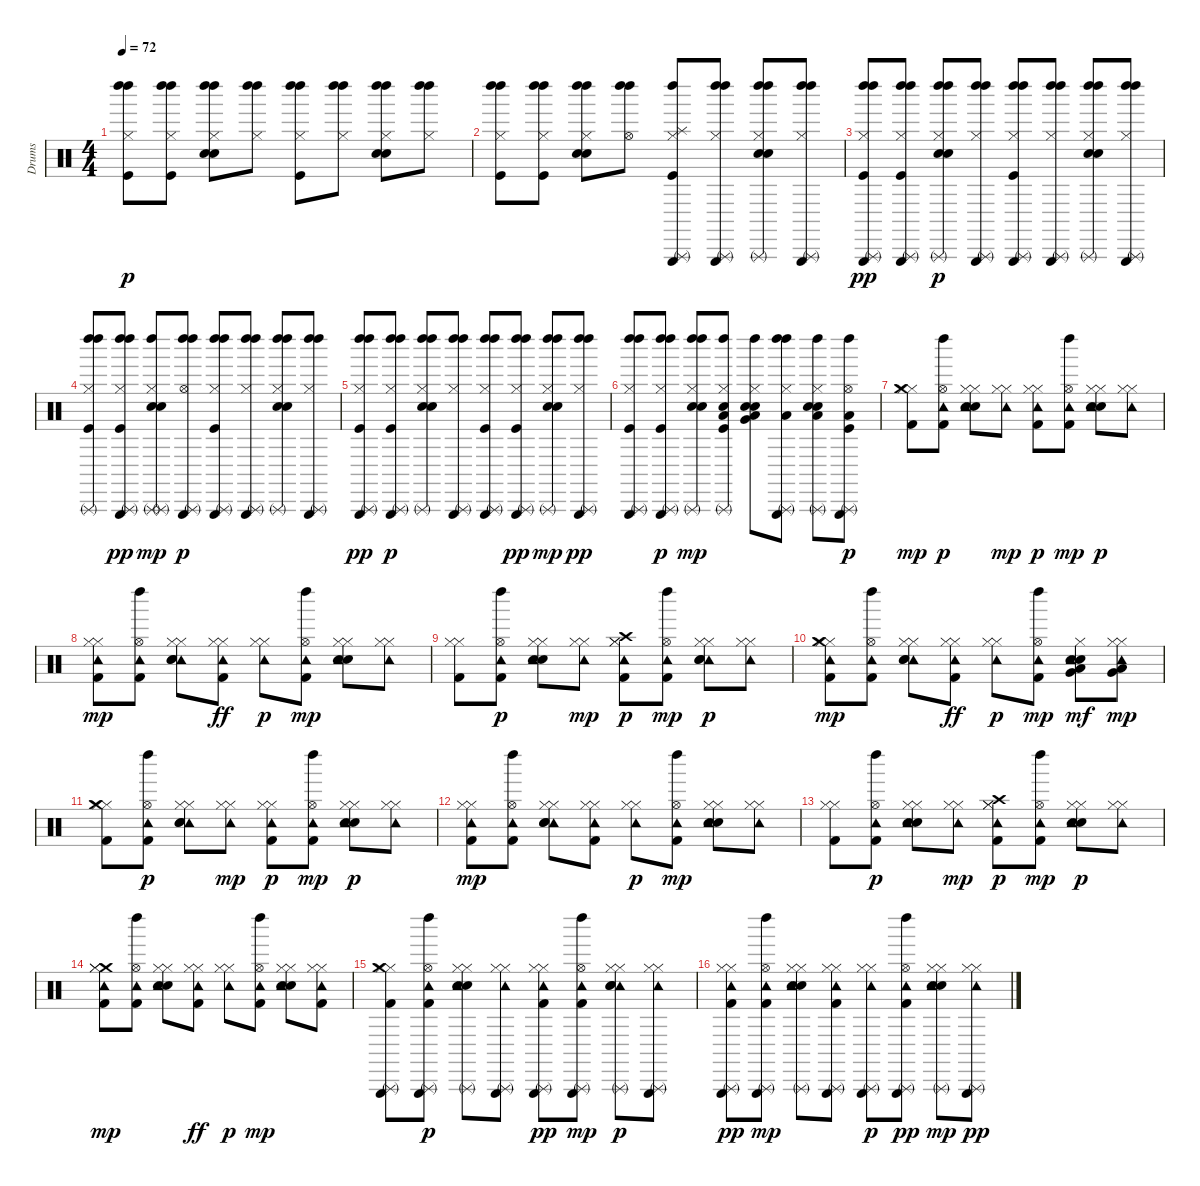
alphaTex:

\track ("Drums" "Drums") {instrument percussion}
\staff {score}
\articulation defaults
\ts (4 4)
\tempo 72
\clef neutral
\ks c
("Kick (hit)" "Hi-Hat (closed)" "Left Maraca (hit)" "Left Maraca (hit)").8{dy p} ("Hi-Hat (closed)" "Left Maraca (hit)" "Kick (hit)" "Left Maraca (hit)").8 ("Electric Snare (hit)" "Left Maraca (hit)" "Hand Clap (hit)" "Hi-Hat (closed)" "Left Maraca (hit)").8 ("Hi-Hat (closed)" "Left Maraca (hit)" "Left Maraca (hit)").8 ("Hi-Hat (closed)" "Kick (hit)" "Left Maraca (hit)" "Left Maraca (hit)").8 ("Hi-Hat (closed)" "Left Maraca (hit)" "Left Maraca (hit)").8 ("Left Maraca (hit)" "Hand Clap (hit)" "Electric Snare (hit)" "Hi-Hat (closed)" "Left Maraca (hit)").8 ("Left Maraca (hit)" "Hi-Hat (closed)" "Left Maraca (hit)").8 |
("Left Maraca (hit)" "Hi-Hat (closed)" "Kick (hit)" "Left Maraca (hit)").8 ("Left Maraca (hit)" "Hi-Hat (closed)" "Kick (hit)" "Left Maraca (hit)").8 ("Left Maraca (hit)" "Electric Snare (hit)" "Hand Clap (hit)" "Hi-Hat (closed)" "Left Maraca (hit)").8 ("Left Maraca (hit)" "Hi-Hat (open)" "Left Maraca (hit)").8 ("Splash (hit)" "Triangle (rnute)" "Hi-Hat (closed)" "Left Maraca (hit)" "Kick (hit)" "Triangle (hit)").8 ("Hi-Hat (closed)" "Triangle (rnute)" "Left Maraca (hit)" "Left Maraca (hit)" "Triangle (hit)").8 ("Hand Clap (hit)" "Hi-Hat (closed)" "Left Maraca (hit)" "Electric Snare (hit)" "Left Maraca (hit)" "Triangle (rnute)").8 ("Hi-Hat (closed)" "Triangle (rnute)" "Left Maraca (hit)" "Left Maraca (hit)" "Triangle (hit)").8 |
("Hi-Hat (closed)" "Kick (hit)" "Left Maraca (hit)" "Triangle (rnute)" "Left Maraca (hit)" "Triangle (hit)").8{dy pp} ("Kick (hit)" "Hi-Hat (closed)" "Left Maraca (hit)" "Triangle (rnute)" "Left Maraca (hit)" "Triangle (hit)").8 ("Hi-Hat (closed)" "Left Maraca (hit)" "Hand Clap (hit)" "Electric Snare (hit)" "Triangle (rnute)" "Left Maraca (hit)").8{dy p} ("Triangle (rnute)" "Hi-Hat (closed)" "Left Maraca (hit)" "Triangle (hit)" "Left Maraca (hit)").8 ("Kick (hit)" "Left Maraca (hit)" "Hi-Hat (closed)" "Triangle (rnute)" "Triangle (hit)" "Left Maraca (hit)").8 ("Left Maraca (hit)" "Hi-Hat (closed)" "Triangle (rnute)" "Triangle (hit)" "Left Maraca (hit)").8 ("Left Maraca (hit)" "Electric Snare (hit)" "Hi-Hat (closed)" "Hand Clap (hit)" "Triangle (rnute)" "Left Maraca (hit)").8 ("Hi-Hat (closed)" "Triangle (rnute)" "Left Maraca (hit)" "Triangle (hit)" "Left Maraca (hit)").8 |
("Left Maraca (hit)" "Kick (hit)" "Hi-Hat (closed)" "Left Maraca (hit)" "Triangle (rnute)").8 ("Hi-Hat (closed)" "Triangle (rnute)" "Left Maraca (hit)" "Kick (hit)" "Left Maraca (hit)" "Triangle (hit)").8{dy pp} ("Triangle (rnute)" "Hand Clap (hit)" "Electric Snare (hit)" "Left Maraca (hit)" "Hi-Hat (closed)" "Triangle (rnute)").8{dy mp} ("Left Maraca (hit)" "Hi-Hat (open)" "Triangle (hit)" "Triangle (rnute)" "Left Maraca (hit)").8{dy p} ("Triangle (rnute)" "Left Maraca (hit)" "Kick (hit)" "Hi-Hat (closed)" "Left Maraca (hit)" "Triangle (hit)").8 ("Triangle (rnute)" "Left Maraca (hit)" "Hi-Hat (closed)" "Triangle (hit)" "Left Maraca (hit)").8 ("Electric Snare (hit)" "Left Maraca (hit)" "Hi-Hat (closed)" "Hand Clap (hit)" "Triangle (rnute)" "Left Maraca (hit)").8 ("Hi-Hat (closed)" "Left Maraca (hit)" "Triangle (rnute)" "Left Maraca (hit)" "Triangle (hit)").8 |
("Kick (hit)" "Hi-Hat (closed)" "Left Maraca (hit)" "Triangle (rnute)" "Left Maraca (hit)" "Triangle (hit)").8{dy pp} ("Triangle (rnute)" "Kick (hit)" "Left Maraca (hit)" "Hi-Hat (closed)" "Triangle (hit)" "Left Maraca (hit)").8{dy p} ("Left Maraca (hit)" "Hand Clap (hit)" "Electric Snare (hit)" "Hi-Hat (closed)" "Left Maraca (hit)" "Triangle (rnute)").8 ("Left Maraca (hit)" "Hi-Hat (closed)" "Triangle (rnute)" "Triangle (hit)" "Left Maraca (hit)").8 ("Triangle (rnute)" "Kick (hit)" "Hi-Hat (closed)" "Left Maraca (hit)" "Triangle (hit)" "Left Maraca (hit)").8 ("Kick (hit)" "Hi-Hat (closed)" "Left Maraca (hit)" "Triangle (rnute)" "Left Maraca (hit)" "Triangle (hit)").8{dy pp} ("Electric Snare (hit)" "Hi-Hat (closed)" "Hand Clap (hit)" "Left Maraca (hit)" "Left Maraca (hit)" "Triangle (rnute)").8{dy mp} ("Hi-Hat (closed)" "Triangle (rnute)" "Left Maraca (hit)" "Left Maraca (hit)" "Triangle (hit)").8{dy pp} |
("Hi-Hat (closed)" "Kick (hit)" "Left Maraca (hit)" "Triangle (rnute)" "Left Maraca (hit)" "Triangle (hit)").8 ("Kick (hit)" "Hi-Hat (closed)" "Triangle (rnute)" "Left Maraca (hit)" "Triangle (hit)" "Left Maraca (hit)").8{dy p} ("Hi-Hat (closed)" "Electric Snare (hit)" "Hand Clap (hit)" "Left Maraca (hit)" "Left Maraca (hit)" "Triangle (rnute)").8{dy mp} ("Left Maraca (hit)" "Triangle (rnute)" "Hi-Hat (closed)" "Kick (hit)" "Low Tom (hit)" "Electric Snare (hit)").8 ("Hand Clap (hit)" "Low Tom (hit)" "Hi-Hat (closed)" "Left Maraca (hit)" "Electric Snare (hit)" "Very Low Tom (hit)").8 ("Left Maraca (hit)" "Hi-Hat (closed)" "Triangle (rnute)" "Left Maraca (hit)" "Triangle (hit)" "Low Tom (hit)").8 ("Triangle (rnute)" "Low Tom (hit)" "Electric Snare (hit)" "Hi-Hat (closed)" "Hand Clap (hit)" "Left Maraca (hit)").8 ("Hi-Hat (open)" "Left Maraca (hit)" "Low Floor Tom (hit)" "Kick (hit)" "Triangle (hit)" "Triangle (rnute)").8{dy p} |
("Kick (hit) 2" "Hi-Hat (closed)" "Crash medium (hit)" "Hi-Hat (closed)").8{dy mp} ("Kick (hit) 2" "Tambourine (hit)" "Hi-Hat (open)" "Left Maraca (hit)").8{dy p} ("Electric Snare (hit)" "Hi-Hat (closed)" "Tambourine (hit)" "Hand Clap (hit)" "Hi-Hat (closed)").8 ("Tambourine (hit)" "Hi-Hat (closed)" "Hi-Hat (closed)").8{dy mp} ("Hi-Hat (closed)" "Tambourine (hit)" "Kick (hit) 2" "Hi-Hat (closed)").8{dy p} ("Kick (hit) 2" "Tambourine (hit)" "Hi-Hat (open)" "Left Maraca (hit)").8{dy mp} ("Hand Clap (hit)" "Electric Snare (hit)" "Hi-Hat (closed)" "Tambourine (hit)" "Hi-Hat (closed)").8{dy p} ("Hi-Hat (closed)" "Tambourine (hit)" "Hi-Hat (closed)").8 |
("Tambourine (hit)" "Hi-Hat (closed)" "Kick (hit) 2" "Hi-Hat (closed)").8{dy mp} ("Hi-Hat (open)" "Tambourine (hit)" "Kick (hit) 2" "Left Maraca (hit)").8 ("Tambourine (hit)" "Electric Snare (hit)" "Hi-Hat (closed)" "Hand Clap (hit)" "Hi-Hat (closed)").8 ("Hi-Hat (closed)" "Tambourine (hit)" "Hi-Hat (closed)" "Kick (hit) 2").8{dy ff} ("Hi-Hat (closed)" "Tambourine (hit)" "Hi-Hat (closed)").8{dy p} ("Hi-Hat (open)" "Kick (hit) 2" "Tambourine (hit)" "Left Maraca (hit)").8{dy mp} ("Hi-Hat (closed)" "Hand Clap (hit)" "Electric Snare (hit)" "Tambourine (hit)" "Hi-Hat (closed)").8 ("Tambourine (hit)" "Hi-Hat (closed)" "Hi-Hat (closed)").8 |
("Hi-Hat (closed)" "Kick (hit) 2" "Hi-Hat (closed)").8 ("Hi-Hat (open)" "Kick (hit) 2" "Tambourine (hit)" "Left Maraca (hit)").8{dy p} ("Hand Clap (hit)" "Electric Snare (hit)" "Tambourine (hit)" "Hi-Hat (closed)" "Hi-Hat (closed)").8 ("Tambourine (hit)" "Hi-Hat (closed)" "Hi-Hat (closed)").8{dy mp} ("Kick (hit) 2" "Crash high (hit)" "Hi-Hat (closed)" "Tambourine (hit)" "Hi-Hat (closed)").8{dy p} ("Hi-Hat (open)" "Tambourine (hit)" "Kick (hit) 2" "Left Maraca (hit)").8{dy mp} ("Tambourine (hit)" "Hand Clap (hit)" "Hi-Hat (closed)" "Electric Snare (hit)" "Hi-Hat (closed)").8{dy p} ("Tambourine (hit)" "Hi-Hat (closed)" "Hi-Hat (closed)").8 |
("Kick (hit) 2" "Hi-Hat (closed)" "Crash medium (hit)" "Tambourine (hit)" "Hi-Hat (closed)").8{dy mp} ("Tambourine (hit)" "Hi-Hat (open)" "Kick (hit) 2" "Left Maraca (hit)").8 ("Tambourine (hit)" "Hand Clap (hit)" "Hi-Hat (closed)" "Electric Snare (hit)" "Hi-Hat (closed)").8 ("Tambourine (hit)" "Hi-Hat (closed)" "Hi-Hat (closed)" "Kick (hit) 2").8{dy ff} ("Tambourine (hit)" "Hi-Hat (closed)" "Hi-Hat (closed)").8{dy p} ("Tambourine (hit)" "Hi-Hat (open)" "Kick (hit) 2" "Left Maraca (hit)").8{dy mp} ("Hi-Hat (closed)" "Electric Snare (hit)" "Hand Clap (hit)" "Low Tom (hit)" "Tambourine (hit)" "Very Low Tom (hit)").8{dy mf} ("Low Floor Tom (hit)" "Hi-Hat (closed)" "Tambourine (hit)" "Very Low Tom (hit)" "Hi-Hat (closed)").8{dy mp} |
("Hi-Hat (closed)" "Crash medium (hit)" "Kick (hit) 2" "Hi-Hat (closed)").8 ("Hi-Hat (open)" "Tambourine (hit)" "Kick (hit) 2" "Left Maraca (hit)").8{dy p} ("Tambourine (hit)" "Hand Clap (hit)" "Hi-Hat (closed)" "Electric Snare (hit)" "Hi-Hat (closed)").8 ("Hi-Hat (closed)" "Tambourine (hit)" "Hi-Hat (closed)").8{dy mp} ("Kick (hit) 2" "Hi-Hat (closed)" "Tambourine (hit)" "Hi-Hat (closed)").8{dy p} ("Hi-Hat (open)" "Tambourine (hit)" "Kick (hit) 2" "Left Maraca (hit)").8{dy mp} ("Hi-Hat (closed)" "Hand Clap (hit)" "Electric Snare (hit)" "Tambourine (hit)" "Hi-Hat (closed)").8{dy p} ("Tambourine (hit)" "Hi-Hat (closed)" "Hi-Hat (closed)").8 |
("Tambourine (hit)" "Hi-Hat (closed)" "Kick (hit) 2" "Hi-Hat (closed)").8{dy mp} ("Hi-Hat (open)" "Kick (hit) 2" "Tambourine (hit)" "Left Maraca (hit)").8 ("Tambourine (hit)" "Hand Clap (hit)" "Electric Snare (hit)" "Hi-Hat (closed)" "Hi-Hat (closed)").8 ("Tambourine (hit)" "Hi-Hat (closed)" "Kick (hit) 2" "Hi-Hat (closed)").8 ("Tambourine (hit)" "Hi-Hat (closed)" "Hi-Hat (closed)").8{dy p} ("Kick (hit) 2" "Tambourine (hit)" "Hi-Hat (open)" "Left Maraca (hit)").8{dy mp} ("Hi-Hat (closed)" "Electric Snare (hit)" "Tambourine (hit)" "Hand Clap (hit)" "Hi-Hat (closed)").8 ("Hi-Hat (closed)" "Tambourine (hit)" "Hi-Hat (closed)").8 |
("Kick (hit) 2" "Hi-Hat (closed)" "Hi-Hat (closed)").8 ("Tambourine (hit)" "Hi-Hat (open)" "Kick (hit) 2" "Left Maraca (hit)").8{dy p} ("Hand Clap (hit)" "Electric Snare (hit)" "Hi-Hat (closed)" "Tambourine (hit)" "Hi-Hat (closed)").8 ("Hi-Hat (closed)" "Tambourine (hit)" "Hi-Hat (closed)").8{dy mp} ("Hi-Hat (closed)" "Kick (hit) 2" "Tambourine (hit)" "Crash high (hit)" "Hi-Hat (closed)").8{dy p} ("Hi-Hat (open)" "Kick (hit) 2" "Tambourine (hit)" "Left Maraca (hit)").8{dy mp} ("Hand Clap (hit)" "Tambourine (hit)" "Electric Snare (hit)" "Hi-Hat (closed)" "Hi-Hat (closed)").8{dy p} ("Hi-Hat (closed)" "Tambourine (hit)" "Hi-Hat (closed)").8 |
("Crash medium (hit)" "Tambourine (hit)" "Hi-Hat (closed)" "Kick (hit) 2" "Hi-Hat (closed)").8{dy mp} ("Tambourine (hit)" "Kick (hit) 2" "Hi-Hat (open)" "Left Maraca (hit)").8 ("Hand Clap (hit)" "Electric Snare (hit)" "Hi-Hat (closed)" "Tambourine (hit)" "Hi-Hat (closed)").8 ("Tambourine (hit)" "Hi-Hat (closed)" "Hi-Hat (closed)" "Kick (hit) 2").8{dy ff} ("Tambourine (hit)" "Hi-Hat (closed)" "Hi-Hat (closed)").8{dy p} ("Kick (hit) 2" "Tambourine (hit)" "Hi-Hat (open)" "Left Maraca (hit)").8{dy mp} ("Electric Snare (hit)" "Hand Clap (hit)" "Hi-Hat (closed)" "Tambourine (hit)" "Hi-Hat (closed)").8 ("Tambourine (hit)" "Hi-Hat (closed)" "Kick (hit) 2" "Hi-Hat (closed)").8 |
("Kick (hit) 2" "Hi-Hat (closed)" "Crash medium (hit)" "Triangle (rnute)" "Triangle (hit)" "Hi-Hat (closed)").8 ("Hi-Hat (open)" "Tambourine (hit)" "Kick (hit) 2" "Triangle (rnute)" "Left Maraca (hit)" "Triangle (hit)").8{dy p} ("Hand Clap (hit)" "Hi-Hat (closed)" "Tambourine (hit)" "Electric Snare (hit)" "Triangle (rnute)" "Hi-Hat (closed)").8 ("Triangle (rnute)" "Hi-Hat (closed)" "Tambourine (hit)" "Hi-Hat (closed)" "Triangle (hit)").8 ("Hi-Hat (closed)" "Triangle (rnute)" "Tambourine (hit)" "Kick (hit) 2" "Hi-Hat (closed)" "Triangle (hit)").8{dy pp} ("Tambourine (hit)" "Triangle (rnute)" "Hi-Hat (open)" "Kick (hit) 2" "Triangle (hit)" "Left Maraca (hit)").8{dy mp} ("Tambourine (hit)" "Hi-Hat (closed)" "Hand Clap (hit)" "Electric Snare (hit)" "Triangle (rnute)" "Hi-Hat (closed)").8{dy p} ("Tambourine (hit)" "Hi-Hat (closed)" "Triangle (rnute)" "Triangle (hit)" "Hi-Hat (closed)").8 |
("Triangle (rnute)" "Hi-Hat (closed)" "Kick (hit) 2" "Tambourine (hit)" "Hi-Hat (closed)" "Triangle (hit)").8{dy pp} ("Tambourine (hit)" "Hi-Hat (open)" "Triangle (rnute)" "Kick (hit) 2" "Triangle (hit)" "Left Maraca (hit)").8{dy mp} ("Hand Clap (hit)" "Tambourine (hit)" "Hi-Hat (closed)" "Electric Snare (hit)" "Hi-Hat (closed)" "Triangle (rnute)").8 ("Hi-Hat (closed)" "Triangle (rnute)" "Tambourine (hit)" "Kick (hit) 2" "Triangle (hit)" "Hi-Hat (closed)").8 ("Triangle (rnute)" "Hi-Hat (closed)" "Tambourine (hit)" "Triangle (hit)" "Hi-Hat (closed)").8{dy p} ("Hi-Hat (open)" "Triangle (rnute)" "Tambourine (hit)" "Kick (hit) 2" "Left Maraca (hit)" "Triangle (hit)").8{dy pp} ("Hi-Hat (closed)" "Electric Snare (hit)" "Hand Clap (hit)" "Tambourine (hit)" "Triangle (rnute)" "Hi-Hat (closed)").8{dy mp} ("Tambourine (hit)" "Hi-Hat (closed)" "Triangle (rnute)" "Hi-Hat (closed)" "Triangle (hit)").8{dy pp}
